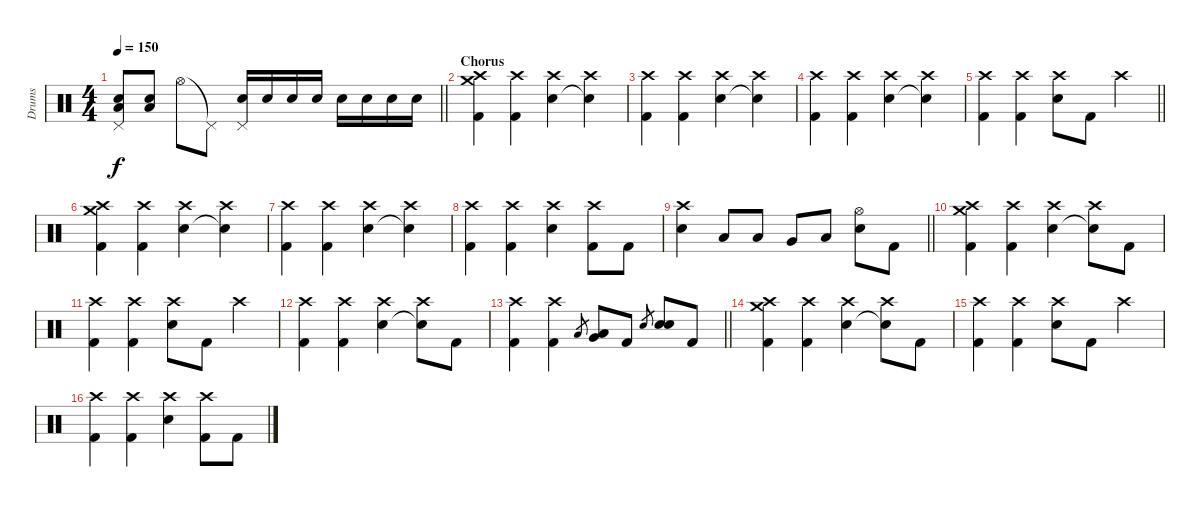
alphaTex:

\track ("Drums" "Drums") {instrument percussion}
\staff {score}
\articulation defaults
\ts (4 4)
\tempo 150
\clef neutral
\barLineRight lightlight
\ks c
("Electric Snare (hit)" "Low Floor Tom (hit)" "Pedal Hi-Hat (hit)").8{dy f} ("Electric Snare (hit)" "Low Floor Tom (hit)").8 "Hi-Hat (open)".8 "Pedal Hi-Hat (hit)"{t}.8 ("Electric Snare (hit)" "Pedal Hi-Hat (hit)").16 "Electric Snare (hit)".16 "Electric Snare (hit)".16 "Electric Snare (hit)".16 "Electric Snare (hit)".16 "Electric Snare (hit)".16 "Electric Snare (hit)".16 "Electric Snare (hit)".16 |
\section ("" "Chorus")
("Kick (hit) 2" "Crash medium (hit)" "Crash high (hit)").4 ("Kick (hit) 2" "Crash high (hit)").4 ("Electric Snare (hit)" "Crash high (hit)").4 ("Snare (hit)"{t} "Crash high (hit)").4 |
("Kick (hit) 2" "Crash high (hit)").4 ("Kick (hit) 2" "Crash high (hit)").4 ("Electric Snare (hit)" "Crash high (hit)").4 ("Snare (hit)"{t} "Crash high (hit)").4 |
("Kick (hit) 2" "Crash high (hit)").4 ("Kick (hit) 2" "Crash high (hit)").4 ("Electric Snare (hit)" "Crash high (hit)").4 ("Snare (hit)"{t} "Crash high (hit)").4 |
\barLineRight lightlight
("Kick (hit) 2" "Crash high (hit)").4 ("Kick (hit) 2" "Crash high (hit)").4 ("Electric Snare (hit)" "Crash high (hit)").8 "Kick (hit) 2".8 "Crash high (hit)".4 |
("Kick (hit) 2" "Crash medium (hit)" "Crash high (hit)").4 ("Kick (hit) 2" "Crash high (hit)").4 ("Electric Snare (hit)" "Crash high (hit)").4 ("Snare (hit)"{t} "Crash high (hit)").4 |
("Kick (hit) 2" "Crash high (hit)").4 ("Kick (hit) 2" "Crash high (hit)").4 ("Electric Snare (hit)" "Crash high (hit)").4 ("Snare (hit)"{t} "Crash high (hit)").4 |
("Kick (hit) 2" "Crash high (hit)").4 ("Kick (hit) 2" "Crash high (hit)").4 ("Electric Snare (hit)" "Crash high (hit)").4 ("Kick (hit) 2" "Crash high (hit)").8 "Kick (hit) 2".8 |
\barLineRight lightlight
("Electric Snare (hit)" "Crash high (hit)").4 "Low Tom (hit)".8 "Low Tom (hit)".8 "Very Low Tom (hit)".8 "Low Floor Tom (hit)".8 ("Electric Snare (hit)" "Hi-Hat (open)").8 "Kick (hit) 2".8 |
("Kick (hit) 2" "Crash medium (hit)" "Crash high (hit)").4 ("Kick (hit) 2" "Crash high (hit)").4 ("Electric Snare (hit)" "Crash high (hit)").4 ("Snare (hit)"{t} "Crash high (hit)").8 "Kick (hit) 2".8 |
("Kick (hit) 2" "Crash high (hit)").4 ("Kick (hit) 2" "Crash high (hit)").4 ("Electric Snare (hit)" "Crash high (hit)").8 "Kick (hit) 2".8 "Crash high (hit)".4 |
("Kick (hit) 2" "Crash high (hit)").4 ("Kick (hit) 2" "Crash high (hit)").4 ("Electric Snare (hit)" "Crash high (hit)").4 ("Snare (hit)"{t} "Crash high (hit)").8 "Kick (hit) 2".8 |
\barLineRight lightlight
("Kick (hit) 2" "Crash high (hit)").4 ("Kick (hit) 2" "Crash high (hit)").4 "Low Tom (hit)".8{gr} ("Low Tom (hit)" "Very Low Tom (hit)").8 "Kick (hit) 2".8 "Electric Snare (hit)".8{gr} ("Electric Snare (hit)" "Electric Snare (hit)").8 "Kick (hit) 2".8 |
("Kick (hit) 2" "Crash medium (hit)" "Crash high (hit)").4 ("Kick (hit) 2" "Crash high (hit)").4 ("Electric Snare (hit)" "Crash high (hit)").4 ("Snare (hit)"{t} "Crash high (hit)").8 "Kick (hit) 2".8 |
("Kick (hit) 2" "Crash high (hit)").4 ("Kick (hit) 2" "Crash high (hit)").4 ("Electric Snare (hit)" "Crash high (hit)").8 "Kick (hit) 2".8 "Crash high (hit)".4 |
("Kick (hit) 2" "Crash high (hit)").4 ("Kick (hit) 2" "Crash high (hit)").4 ("Electric Snare (hit)" "Crash high (hit)").4 ("Kick (hit) 2" "Crash high (hit)").8 "Kick (hit) 2".8
